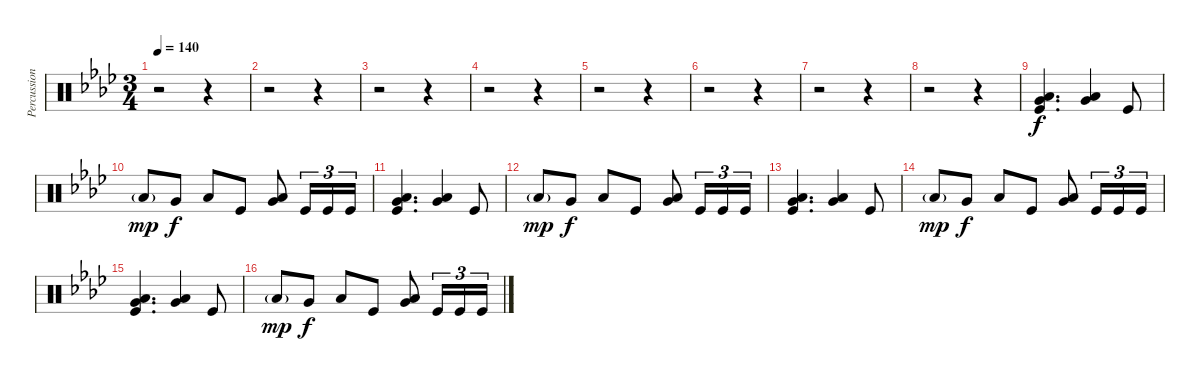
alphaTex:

\track ("Percussion" "Percussion") {instrument percussion}
\staff {score}
\articulation defaults
\ts (3 4)
\tempo 140
\clef neutral
\ks ab
r.2{dy f} r.4 |
r.2 r.4 |
r.2 r.4 |
r.2 r.4 |
r.2 r.4 |
r.2 r.4 |
r.2 r.4 |
r.2 r.4 |
("Low Floor Tom (hit)" "Very Low Tom (hit)" "Kick (hit)").4{d} ("Low Floor Tom (hit)" "Very Low Tom (hit)").4 "Kick (hit)".8 |
"Low Floor Tom (hit)"{g}.8{dy mp} "Very Low Tom (hit)".8{dy f} "Low Floor Tom (hit)".8 "Kick (hit)".8 ("Very Low Tom (hit)" "Low Floor Tom (hit)").8 "Kick (hit)".16{tu (3 2)} "Kick (hit)".16{tu (3 2)} "Kick (hit)".16{tu (3 2)} |
("Low Floor Tom (hit)" "Very Low Tom (hit)" "Kick (hit)").4{d} ("Low Floor Tom (hit)" "Very Low Tom (hit)").4 "Kick (hit)".8 |
"Low Floor Tom (hit)"{g}.8{dy mp} "Very Low Tom (hit)".8{dy f} "Low Floor Tom (hit)".8 "Kick (hit)".8 ("Very Low Tom (hit)" "Low Floor Tom (hit)").8 "Kick (hit)".16{tu (3 2)} "Kick (hit)".16{tu (3 2)} "Kick (hit)".16{tu (3 2)} |
("Low Floor Tom (hit)" "Very Low Tom (hit)" "Kick (hit)").4{d} ("Low Floor Tom (hit)" "Very Low Tom (hit)").4 "Kick (hit)".8 |
"Low Floor Tom (hit)"{g}.8{dy mp} "Very Low Tom (hit)".8{dy f} "Low Floor Tom (hit)".8 "Kick (hit)".8 ("Very Low Tom (hit)" "Low Floor Tom (hit)").8 "Kick (hit)".16{tu (3 2)} "Kick (hit)".16{tu (3 2)} "Kick (hit)".16{tu (3 2)} |
("Low Floor Tom (hit)" "Very Low Tom (hit)" "Kick (hit)").4{d} ("Low Floor Tom (hit)" "Very Low Tom (hit)").4 "Kick (hit)".8 |
"Low Floor Tom (hit)"{g}.8{dy mp} "Very Low Tom (hit)".8{dy f} "Low Floor Tom (hit)".8 "Kick (hit)".8 ("Very Low Tom (hit)" "Low Floor Tom (hit)").8 "Kick (hit)".16{tu (3 2)} "Kick (hit)".16{tu (3 2)} "Kick (hit)".16{tu (3 2)}
